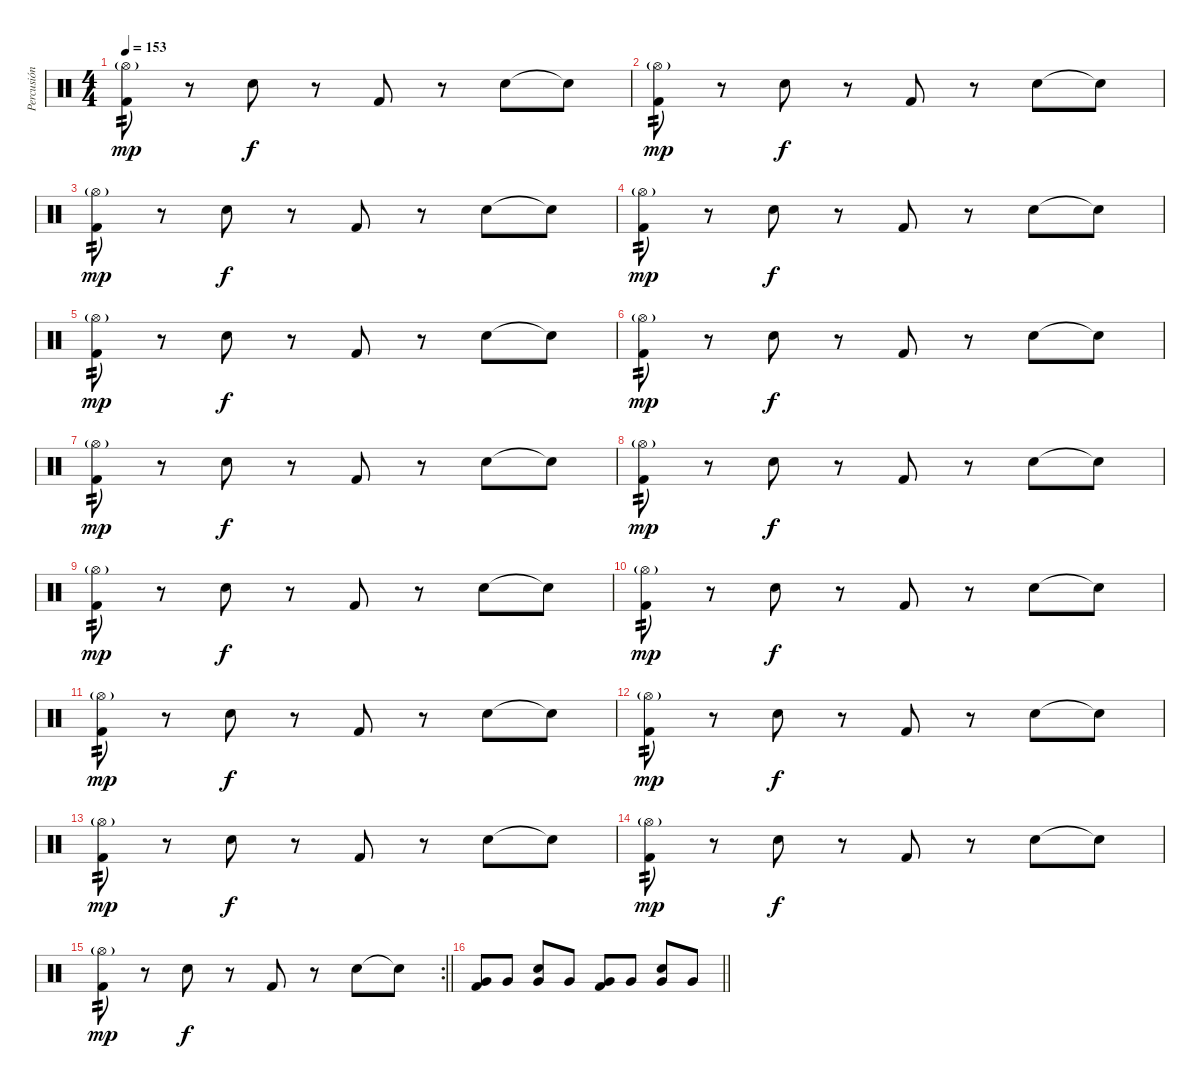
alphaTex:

\track ("Percusión" "Percusión") {instrument percussion}
\staff {score}
\articulation defaults
\ts (4 4)
\tempo 153
\clef neutral
\ks c
("Hi-Hat (open)"{g} "Kick (hit) 2").8{tp 2 dy mp} r.8 "Snare (hit) 2".8{dy f} r.8 "Kick (hit) 2".8 r.8 "Snare (hit) 2".8 "Snare (hit)"{t}.8 |
("Hi-Hat (open)"{g} "Kick (hit) 2").8{tp 2 dy mp} r.8 "Snare (hit) 2".8{dy f} r.8 "Kick (hit) 2".8 r.8 "Snare (hit) 2".8 "Snare (hit)"{t}.8 |
("Hi-Hat (open)"{g} "Kick (hit) 2").8{tp 2 dy mp} r.8 "Snare (hit) 2".8{dy f} r.8 "Kick (hit) 2".8 r.8 "Snare (hit) 2".8 "Snare (hit)"{t}.8 |
("Hi-Hat (open)"{g} "Kick (hit) 2").8{tp 2 dy mp} r.8 "Snare (hit) 2".8{dy f} r.8 "Kick (hit) 2".8 r.8 "Snare (hit) 2".8 "Snare (hit)"{t}.8 |
("Hi-Hat (open)"{g} "Kick (hit) 2").8{tp 2 dy mp} r.8 "Snare (hit) 2".8{dy f} r.8 "Kick (hit) 2".8 r.8 "Snare (hit) 2".8 "Snare (hit)"{t}.8 |
("Hi-Hat (open)"{g} "Kick (hit) 2").8{tp 2 dy mp} r.8 "Snare (hit) 2".8{dy f} r.8 "Kick (hit) 2".8 r.8 "Snare (hit) 2".8 "Snare (hit)"{t}.8 |
("Hi-Hat (open)"{g} "Kick (hit) 2").8{tp 2 dy mp} r.8 "Snare (hit) 2".8{dy f} r.8 "Kick (hit) 2".8 r.8 "Snare (hit) 2".8 "Snare (hit)"{t}.8 |
("Hi-Hat (open)"{g} "Kick (hit) 2").8{tp 2 dy mp} r.8 "Snare (hit) 2".8{dy f} r.8 "Kick (hit) 2".8 r.8 "Snare (hit) 2".8 "Snare (hit)"{t}.8 |
("Hi-Hat (open)"{g} "Kick (hit) 2").8{tp 2 dy mp} r.8 "Snare (hit) 2".8{dy f} r.8 "Kick (hit) 2".8 r.8 "Snare (hit) 2".8 "Snare (hit)"{t}.8 |
("Hi-Hat (open)"{g} "Kick (hit) 2").8{tp 2 dy mp} r.8 "Snare (hit) 2".8{dy f} r.8 "Kick (hit) 2".8 r.8 "Snare (hit) 2".8 "Snare (hit)"{t}.8 |
("Hi-Hat (open)"{g} "Kick (hit) 2").8{tp 2 dy mp} r.8 "Snare (hit) 2".8{dy f} r.8 "Kick (hit) 2".8 r.8 "Snare (hit) 2".8 "Snare (hit)"{t}.8 |
("Hi-Hat (open)"{g} "Kick (hit) 2").8{tp 2 dy mp} r.8 "Snare (hit) 2".8{dy f} r.8 "Kick (hit) 2".8 r.8 "Snare (hit) 2".8 "Snare (hit)"{t}.8 |
("Hi-Hat (open)"{g} "Kick (hit) 2").8{tp 2 dy mp} r.8 "Snare (hit) 2".8{dy f} r.8 "Kick (hit) 2".8 r.8 "Snare (hit) 2".8 "Snare (hit)"{t}.8 |
("Hi-Hat (open)"{g} "Kick (hit) 2").8{tp 2 dy mp} r.8 "Snare (hit) 2".8{dy f} r.8 "Kick (hit) 2".8 r.8 "Snare (hit) 2".8 "Snare (hit)"{t}.8 |
\rc 2
\barLineRight lightlight
("Hi-Hat (open)"{g} "Kick (hit) 2").8{tp 2 dy mp} r.8 "Snare (hit) 2".8{dy f} r.8 "Kick (hit) 2".8 r.8 "Snare (hit) 2".8 "Snare (hit)"{t}.8 |
\barLineRight lightlight
("Very Low Tom (hit)" "Kick (hit) 2").8 "Very Low Tom (hit)".8 ("Very Low Tom (hit)" "Snare (hit) 2").8 "Very Low Tom (hit)".8 ("Very Low Tom (hit)" "Kick (hit) 2").8 "Very Low Tom (hit)".8 ("Very Low Tom (hit)" "Snare (hit) 2").8 "Very Low Tom (hit)".8
